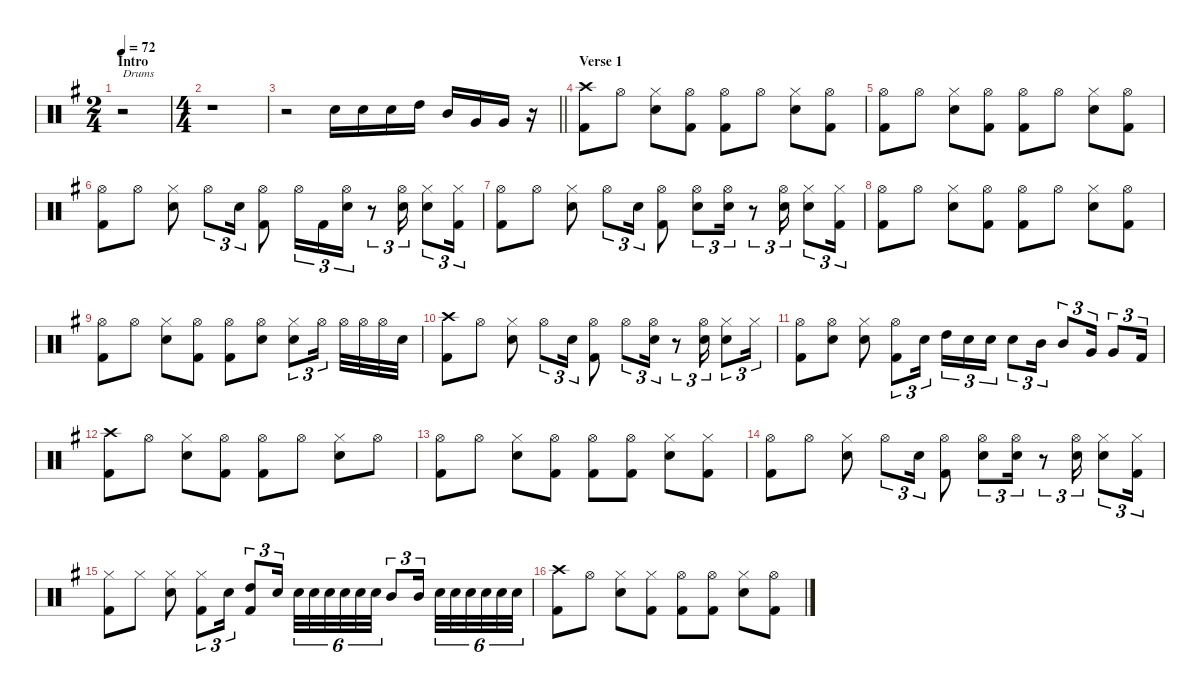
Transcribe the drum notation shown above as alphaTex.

\defaultSystemsLayout 4
\hideDynamics
\bracketExtendMode nobrackets
\singleTrackTrackNamePolicy hidden
\multiTrackTrackNamePolicy hidden
\otherSystemsTrackNameOrientation horizontal
\track ("Drums" "drm.") {instrument percussion}
\staff {score}
\articulation defaults
\ts (2 4)
\beaming (8 2 2)
\section ("" "Intro")
\tempo 72
\clef neutral
\ks g
r.2{txt "Drums" dy f beam Down} |
\ts (4 4)
\beaming (8 2 2 2 2)
r.1{beam Down} |
\barLineRight lightlight
r.2{beam Down} "Snare (hit) 2"{acc forcenatural}.16{beam Down} "Snare (hit) 2"{acc forcenatural}.16{beam Down} "Snare (hit) 2"{acc forcenatural}.16{beam Down} "High Tom (hit)"{acc forcenatural}.16{beam Down} "Mid Tom (hit)"{acc forcenatural}.16{beam Up} "Very Low Tom (hit)"{acc forcenatural}.16{beam Up} "Very Low Tom (hit)"{acc forcenatural}.16{beam Up} r.16{beam Up} |
\section ("" "Verse 1")
("Crash high (hit)"{acc forcenatural} "Kick (hit) 2"{acc forcenatural}).8{dy ff beam Down} "Hi-Hat (open)"{acc forcenatural}.8{dy f beam Down} ("Hi-Hat (closed)"{acc forcenatural} "Snare (hit) 2"{acc forcenatural}).8{beam Down} ("Hi-Hat (open)"{acc forcenatural} "Kick (hit) 2"{acc forcenatural}).8{beam Down} ("Hi-Hat (open)"{acc forcenatural} "Kick (hit) 2"{acc forcenatural}).8{beam Down} "Hi-Hat (open)"{acc forcenatural}.8{beam Down} ("Hi-Hat (closed)"{acc forcenatural} "Snare (hit) 2"{acc forcenatural}).8{beam Down} ("Hi-Hat (open)"{acc forcenatural} "Kick (hit) 2"{acc forcenatural}).8{beam Down} |
("Hi-Hat (open)"{acc forcenatural} "Kick (hit) 2"{acc forcenatural}).8{beam Down} "Hi-Hat (open)"{acc forcenatural}.8{beam Down} ("Hi-Hat (closed)"{acc forcenatural} "Snare (hit) 2"{acc forcenatural}).8{beam Down} ("Hi-Hat (open)"{acc forcenatural} "Kick (hit) 2"{acc forcenatural}).8{beam Down} ("Hi-Hat (open)"{acc forcenatural} "Kick (hit) 2"{acc forcenatural}).8{beam Down} "Hi-Hat (open)"{acc forcenatural}.8{beam Down} ("Hi-Hat (closed)"{acc forcenatural} "Snare (hit) 2"{acc forcenatural}).8{beam Down} ("Hi-Hat (open)"{acc forcenatural} "Kick (hit) 2"{acc forcenatural}).8{beam Down} |
("Hi-Hat (open)"{acc forcenatural} "Kick (hit) 2"{acc forcenatural}).8{beam Down} "Hi-Hat (open)"{acc forcenatural}.8{beam Down} ("Hi-Hat (closed)"{acc forcenatural} "Snare (hit) 2"{acc forcenatural}).8{beam Down} "Hi-Hat (open)"{acc forcenatural}.8{tu (3 2) beam Down} "Snare (hit) 2"{acc forcenatural}.16{tu (3 2) beam Down} ("Hi-Hat (open)"{acc forcenatural} "Kick (hit) 2"{acc forcenatural}).8{beam Down} "Hi-Hat (open)"{acc forcenatural}.16{tu (3 2) beam Down} "Kick (hit) 2"{acc forcenatural}.16{tu (3 2) beam Down} ("Hi-Hat (open)"{acc forcenatural} "Snare (hit) 2"{acc forcenatural}).16{tu (3 2) beam Down} r.8{tu (3 2) beam Down} ("Hi-Hat (open)"{acc forcenatural} "Snare (hit) 2"{acc forcenatural}).16{tu (3 2) beam Down} ("Hi-Hat (closed)"{acc forcenatural} "Snare (hit) 2"{acc forcenatural}).8{tu (3 2) beam Down} ("Hi-Hat (closed)"{acc forcenatural} "Kick (hit) 2"{acc forcenatural}).16{tu (3 2) beam Down} |
("Hi-Hat (open)"{acc forcenatural} "Kick (hit) 2"{acc forcenatural}).8{beam Down} "Hi-Hat (open)"{acc forcenatural}.8{beam Down} ("Hi-Hat (closed)"{acc forcenatural} "Snare (hit) 2"{acc forcenatural}).8{beam Down} "Hi-Hat (open)"{acc forcenatural}.8{tu (3 2) beam Down} "Snare (hit) 2"{acc forcenatural}.16{tu (3 2) beam Down} ("Hi-Hat (open)"{acc forcenatural} "Kick (hit) 2"{acc forcenatural}).8{beam Down} ("Hi-Hat (open)"{acc forcenatural} "Snare (hit) 2"{acc forcenatural}).8{tu (3 2) beam Down} ("Hi-Hat (open)"{acc forcenatural} "Snare (hit) 2"{acc forcenatural}).16{tu (3 2) beam Down} r.8{tu (3 2) beam Down} ("Hi-Hat (open)"{acc forcenatural} "Snare (hit) 2"{acc forcenatural}).16{tu (3 2) beam Down} ("Hi-Hat (closed)"{acc forcenatural} "Snare (hit) 2"{acc forcenatural}).8{tu (3 2) beam Down} ("Hi-Hat (closed)"{acc forcenatural} "Kick (hit) 2"{acc forcenatural}).16{tu (3 2) beam Down} |
("Hi-Hat (open)"{acc forcenatural} "Kick (hit) 2"{acc forcenatural}).8{beam Down} "Hi-Hat (open)"{acc forcenatural}.8{beam Down} ("Hi-Hat (closed)"{acc forcenatural} "Snare (hit) 2"{acc forcenatural}).8{beam Down} ("Hi-Hat (open)"{acc forcenatural} "Kick (hit) 2"{acc forcenatural}).8{beam Down} ("Hi-Hat (open)"{acc forcenatural} "Kick (hit) 2"{acc forcenatural}).8{beam Down} "Hi-Hat (open)"{acc forcenatural}.8{beam Down} ("Hi-Hat (closed)"{acc forcenatural} "Snare (hit) 2"{acc forcenatural}).8{beam Down} ("Hi-Hat (open)"{acc forcenatural} "Kick (hit) 2"{acc forcenatural}).8{beam Down} |
("Hi-Hat (open)"{acc forcenatural} "Kick (hit) 2"{acc forcenatural}).8{beam Down} "Hi-Hat (open)"{acc forcenatural}.8{beam Down} ("Hi-Hat (closed)"{acc forcenatural} "Snare (hit) 2"{acc forcenatural}).8{beam Down} ("Hi-Hat (open)"{acc forcenatural} "Kick (hit) 2"{acc forcenatural}).8{beam Down} ("Hi-Hat (open)"{acc forcenatural} "Kick (hit) 2"{acc forcenatural}).8{beam Down} ("Hi-Hat (open)"{acc forcenatural} "Snare (hit) 2"{acc forcenatural}).8{beam Down} ("Hi-Hat (closed)"{acc forcenatural} "Snare (hit) 2"{acc forcenatural}).8{tu (3 2) beam Down} "Hi-Hat (open)"{acc forcenatural}.16{tu (3 2) beam Down} "Hi-Hat (open)"{acc forcenatural}.32{beam Down} "Hi-Hat (open)"{acc forcenatural}.32{beam Down} "Hi-Hat (open)"{acc forcenatural}.32{beam Down} "Snare (hit) 2"{acc forcenatural}.32{beam Down} |
("Crash high (hit)"{acc forcenatural} "Kick (hit) 2"{acc forcenatural}).8{beam Down} "Hi-Hat (open)"{acc forcenatural}.8{beam Down} ("Hi-Hat (closed)"{acc forcenatural} "Snare (hit) 2"{acc forcenatural}).8{beam Down} "Hi-Hat (open)"{acc forcenatural}.8{tu (3 2) beam Down} "Snare (hit) 2"{acc forcenatural}.16{tu (3 2) beam Down} ("Hi-Hat (open)"{acc forcenatural} "Kick (hit) 2"{acc forcenatural}).8{beam Down} "Hi-Hat (open)"{acc forcenatural}.8{tu (3 2) beam Down} ("Hi-Hat (open)"{acc forcenatural} "Snare (hit) 2"{acc forcenatural}).16{tu (3 2) beam Down} r.8{tu (3 2) beam Down} ("Hi-Hat (open)"{acc forcenatural} "Snare (hit) 2"{acc forcenatural}).16{tu (3 2) beam Down} ("Hi-Hat (closed)"{acc forcenatural} "Snare (hit) 2"{acc forcenatural}).8{tu (3 2) beam Down} "Hi-Hat (closed)"{acc forcenatural}.16{tu (3 2) beam Down} |
("Hi-Hat (open)"{acc forcenatural} "Kick (hit) 2"{acc forcenatural}).8{beam Down} ("Hi-Hat (open)"{acc forcenatural} "Snare (hit) 2"{acc forcenatural}).8{beam Down} ("Hi-Hat (closed)"{acc forcenatural} "Snare (hit) 2"{acc forcenatural}).8{beam Down} ("Hi-Hat (open)"{acc forcenatural} "Kick (hit) 2"{acc forcenatural}).8{tu (3 2) beam Down} "Snare (hit) 2"{acc forcenatural}.16{tu (3 2) beam Down} "High Tom (hit)"{acc forcenatural}.16{tu (3 2) beam Down} "Snare (hit) 2"{acc forcenatural}.16{tu (3 2) beam Down} "Snare (hit) 2"{acc forcenatural}.16{tu (3 2) beam Down} "Snare (hit) 2"{acc forcenatural}.8{tu (3 2) beam Down} "Mid Tom (hit)"{acc forcenatural}.16{tu (3 2) beam Down} "Mid Tom (hit)"{acc forcenatural}.8{tu (3 2) beam Up} "Very Low Tom (hit)"{acc forcenatural}.16{tu (3 2) beam Up} "Very Low Tom (hit)"{acc forcenatural}.8{tu (3 2) beam Up} "Kick (hit) 2"{acc forcenatural}.16{tu (3 2) beam Up} |
("Crash high (hit)"{acc forcenatural} "Kick (hit) 2"{acc forcenatural}).8{beam Down} "Hi-Hat (open)"{acc forcenatural}.8{beam Down} ("Hi-Hat (closed)"{acc forcenatural} "Snare (hit) 2"{acc forcenatural}).8{beam Down} ("Hi-Hat (open)"{acc forcenatural} "Kick (hit) 2"{acc forcenatural}).8{beam Down} ("Hi-Hat (open)"{acc forcenatural} "Kick (hit) 2"{acc forcenatural}).8{beam Down} "Hi-Hat (open)"{acc forcenatural}.8{beam Down} ("Hi-Hat (closed)"{acc forcenatural} "Snare (hit) 2"{acc forcenatural}).8{beam Down} "Hi-Hat (open)"{acc forcenatural}.8{beam Down} |
("Hi-Hat (open)"{acc forcenatural} "Kick (hit) 2"{acc forcenatural}).8{beam Down} "Hi-Hat (open)"{acc forcenatural}.8{beam Down} ("Hi-Hat (closed)"{acc forcenatural} "Snare (hit) 2"{acc forcenatural}).8{beam Down} ("Hi-Hat (open)"{acc forcenatural} "Kick (hit) 2"{acc forcenatural}).8{beam Down} ("Hi-Hat (open)"{acc forcenatural} "Kick (hit) 2"{acc forcenatural}).8{beam Down} ("Hi-Hat (open)"{acc forcenatural} "Kick (hit) 2"{acc forcenatural}).8{beam Down} ("Hi-Hat (closed)"{acc forcenatural} "Snare (hit) 2"{acc forcenatural}).8{beam Down} ("Hi-Hat (closed)"{acc forcenatural} "Kick (hit) 2"{acc forcenatural}).8{beam Down} |
("Hi-Hat (open)"{acc forcenatural} "Kick (hit) 2"{acc forcenatural}).8{beam Down} "Hi-Hat (open)"{acc forcenatural}.8{beam Down} ("Hi-Hat (closed)"{acc forcenatural} "Snare (hit) 2"{acc forcenatural}).8{beam Down} "Hi-Hat (open)"{acc forcenatural}.8{tu (3 2) beam Down} "Snare (hit) 2"{acc forcenatural}.16{tu (3 2) beam Down} ("Hi-Hat (open)"{acc forcenatural} "Kick (hit) 2"{acc forcenatural}).8{beam Down} ("Hi-Hat (open)"{acc forcenatural} "Snare (hit) 2"{acc forcenatural}).8{tu (3 2) beam Down} ("Hi-Hat (open)"{acc forcenatural} "Snare (hit) 2"{acc forcenatural}).16{tu (3 2) beam Down} r.8{tu (3 2) beam Down} ("Hi-Hat (open)"{acc forcenatural} "Snare (hit) 2"{acc forcenatural}).16{tu (3 2) beam Down} ("Hi-Hat (closed)"{acc forcenatural} "Snare (hit) 2"{acc forcenatural}).8{tu (3 2) beam Down} ("Hi-Hat (closed)"{acc forcenatural} "Kick (hit) 2"{acc forcenatural}).16{tu (3 2) beam Down} |
("Hi-Hat (closed)"{acc forcenatural} "Kick (hit) 2"{acc forcenatural}).8{beam Down} "Hi-Hat (closed)"{acc forcenatural}.8{beam Down} ("Hi-Hat (closed)"{acc forcenatural} "Snare (hit) 2"{acc forcenatural}).8{beam Down} ("Hi-Hat (closed)"{acc forcenatural} "Kick (hit) 2"{acc forcenatural}).8{tu (3 2) beam Down} "Snare (hit) 2"{acc forcenatural}.16{tu (3 2) beam Down} ("High Tom (hit)"{acc forcenatural} "Kick (hit) 2"{acc forcenatural}).8{tu (3 2) beam Up} "Snare (hit) 2"{acc forcenatural}.16{tu (3 2) beam Up} "Snare (hit) 2"{acc forcenatural}.32{tu (6 4) beam Down} "Snare (hit) 2"{acc forcenatural}.32{tu (6 4) beam Down} "Snare (hit) 2"{acc forcenatural}.32{tu (6 4) beam Down} "Snare (hit) 2"{acc forcenatural}.32{tu (6 4) beam Down} "Snare (hit) 2"{acc forcenatural}.32{tu (6 4) beam Down} "Snare (hit) 2"{acc forcenatural}.32{tu (6 4) beam Down} "Mid Tom (hit)"{acc forcenatural}.8{tu (3 2) beam Up} "Mid Tom (hit)"{acc forcenatural}.16{tu (3 2) beam Up} "Snare (hit) 2"{acc forcenatural}.32{tu (6 4) beam Down} "Snare (hit) 2"{acc forcenatural}.32{tu (6 4) beam Down} "Snare (hit) 2"{acc forcenatural}.32{tu (6 4) beam Down} "Snare (hit) 2"{acc forcenatural}.32{tu (6 4) beam Down} "Snare (hit) 2"{acc forcenatural}.32{tu (6 4) beam Down} "Snare (hit) 2"{acc forcenatural}.32{tu (6 4) beam Down} |
("Crash high (hit)"{acc forcenatural} "Kick (hit) 2"{acc forcenatural}).8{beam Down} "Hi-Hat (open)"{acc forcenatural}.8{beam Down} ("Hi-Hat (closed)"{acc forcenatural} "Snare (hit) 2"{acc forcenatural}).8{beam Down} ("Hi-Hat (closed)"{acc forcenatural} "Kick (hit) 2"{acc forcenatural}).8{beam Down} ("Hi-Hat (open)"{acc forcenatural} "Kick (hit) 2"{acc forcenatural}).8{beam Down} ("Hi-Hat (open)"{acc forcenatural} "Kick (hit) 2"{acc forcenatural}).8{beam Down} ("Hi-Hat (closed)"{acc forcenatural} "Snare (hit) 2"{acc forcenatural}).8{beam Down} ("Hi-Hat (open)"{acc forcenatural} "Kick (hit) 2"{acc forcenatural}).8{beam Down}
